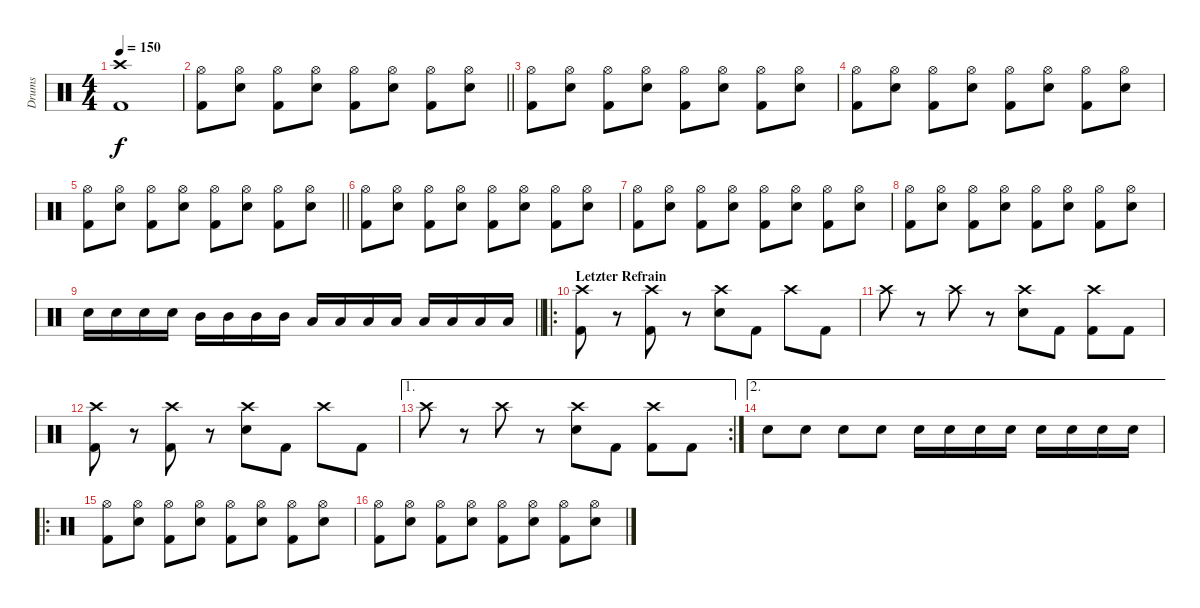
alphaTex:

\track ("Drums" "Drums") {instrument percussion}
\staff {score}
\articulation defaults
\ts (4 4)
\tempo 150
\clef neutral
\ks c
("Crash high (hit)" "Kick (hit) 2").1{dy f} |
\barLineRight lightlight
("Hi-Hat (open)" "Kick (hit) 2").8 ("Hi-Hat (open)" "Snare (hit) 2").8 ("Hi-Hat (open)" "Kick (hit) 2").8 ("Hi-Hat (open)" "Snare (hit) 2").8 ("Hi-Hat (open)" "Kick (hit) 2").8 ("Hi-Hat (open)" "Snare (hit) 2").8 ("Hi-Hat (open)" "Kick (hit) 2").8 ("Hi-Hat (open)" "Snare (hit) 2").8 |
\section ("" "")
("Hi-Hat (open)" "Kick (hit) 2").8 ("Hi-Hat (open)" "Snare (hit) 2").8 ("Hi-Hat (open)" "Kick (hit) 2").8 ("Hi-Hat (open)" "Snare (hit) 2").8 ("Hi-Hat (open)" "Kick (hit) 2").8 ("Hi-Hat (open)" "Snare (hit) 2").8 ("Hi-Hat (open)" "Kick (hit) 2").8 ("Hi-Hat (open)" "Snare (hit) 2").8 |
("Hi-Hat (open)" "Kick (hit) 2").8 ("Hi-Hat (open)" "Snare (hit) 2").8 ("Hi-Hat (open)" "Kick (hit) 2").8 ("Hi-Hat (open)" "Snare (hit) 2").8 ("Hi-Hat (open)" "Kick (hit) 2").8 ("Hi-Hat (open)" "Snare (hit) 2").8 ("Hi-Hat (open)" "Kick (hit) 2").8 ("Hi-Hat (open)" "Snare (hit) 2").8 |
\barLineRight lightlight
("Hi-Hat (open)" "Kick (hit) 2").8 ("Hi-Hat (open)" "Snare (hit) 2").8 ("Hi-Hat (open)" "Kick (hit) 2").8 ("Hi-Hat (open)" "Snare (hit) 2").8 ("Hi-Hat (open)" "Kick (hit) 2").8 ("Hi-Hat (open)" "Snare (hit) 2").8 ("Hi-Hat (open)" "Kick (hit) 2").8 ("Hi-Hat (open)" "Snare (hit) 2").8 |
("Hi-Hat (open)" "Kick (hit) 2").8 ("Hi-Hat (open)" "Snare (hit) 2").8 ("Hi-Hat (open)" "Kick (hit) 2").8 ("Hi-Hat (open)" "Snare (hit) 2").8 ("Hi-Hat (open)" "Kick (hit) 2").8 ("Hi-Hat (open)" "Snare (hit) 2").8 ("Hi-Hat (open)" "Kick (hit) 2").8 ("Hi-Hat (open)" "Snare (hit) 2").8 |
("Hi-Hat (open)" "Kick (hit) 2").8 ("Hi-Hat (open)" "Snare (hit) 2").8 ("Hi-Hat (open)" "Kick (hit) 2").8 ("Hi-Hat (open)" "Snare (hit) 2").8 ("Hi-Hat (open)" "Kick (hit) 2").8 ("Hi-Hat (open)" "Snare (hit) 2").8 ("Hi-Hat (open)" "Kick (hit) 2").8 ("Hi-Hat (open)" "Snare (hit) 2").8 |
("Hi-Hat (open)" "Kick (hit) 2").8 ("Hi-Hat (open)" "Snare (hit) 2").8 ("Hi-Hat (open)" "Kick (hit) 2").8 ("Hi-Hat (open)" "Snare (hit) 2").8 ("Hi-Hat (open)" "Kick (hit) 2").8 ("Hi-Hat (open)" "Snare (hit) 2").8 ("Hi-Hat (open)" "Kick (hit) 2").8 ("Hi-Hat (open)" "Snare (hit) 2").8 |
\barLineRight lightlight "Snare (hit) 2".16 "Snare (hit) 2".16 "Snare (hit) 2".16 "Snare (hit) 2".16 "Mid Tom (hit)".16 "Mid Tom (hit)".16 "Mid Tom (hit)".16 "Mid Tom (hit)".16 "Low Tom (hit)".16 "Low Tom (hit)".16 "Low Tom (hit)".16 "Low Tom (hit)".16 "Low Floor Tom (hit)".16 "Low Floor Tom (hit)".16 "Low Floor Tom (hit)".16 "Low Floor Tom (hit)".16
|
\ro
\section ("" "Letzter Refrain")
("Crash high (hit)" "Kick (hit) 2").8 r.8 ("Crash high (hit)" "Kick (hit) 2").8 r.8 ("Crash high (hit)" "Snare (hit) 2").8 "Kick (hit) 2".8 "Crash high (hit)".8 "Kick (hit) 2".8 |
"Crash high (hit)".8 r.8 "Crash high (hit)".8 r.8 ("Crash high (hit)" "Snare (hit) 2").8 "Kick (hit) 2".8 ("Crash high (hit)" "Kick (hit) 2").8 "Kick (hit) 2".8 |
("Crash high (hit)" "Kick (hit) 2").8 r.8 ("Crash high (hit)" "Kick (hit) 2").8 r.8 ("Crash high (hit)" "Snare (hit) 2").8 "Kick (hit) 2".8 "Crash high (hit)".8 "Kick (hit) 2".8 |
\ae 1
\rc 2 "Crash high (hit)".8
r.8 "Crash high (hit)".8 r.8 ("Crash high (hit)" "Snare (hit) 2").8 "Kick (hit) 2".8 ("Crash high (hit)" "Kick (hit) 2").8 "Kick (hit) 2".8 |
\ae 2 "Snare (hit) 2".8 "Snare (hit) 2".8 "Snare (hit) 2".8 "Snare (hit) 2".8 "Snare (hit) 2".16 "Snare (hit) 2".16 "Snare (hit) 2".16 "Snare (hit) 2".16 "Snare (hit) 2".16 "Snare (hit) 2".16 "Snare (hit) 2".16 "Snare (hit) 2".16
|
\ro
("Hi-Hat (open)" "Kick (hit) 2").8 ("Hi-Hat (open)" "Snare (hit) 2").8 ("Hi-Hat (open)" "Kick (hit) 2").8 ("Hi-Hat (open)" "Snare (hit) 2").8 ("Hi-Hat (open)" "Kick (hit) 2").8 ("Hi-Hat (open)" "Snare (hit) 2").8 ("Hi-Hat (open)" "Kick (hit) 2").8 ("Hi-Hat (open)" "Snare (hit) 2").8 |
("Hi-Hat (open)" "Kick (hit) 2").8 ("Hi-Hat (open)" "Snare (hit) 2").8 ("Hi-Hat (open)" "Kick (hit) 2").8 ("Hi-Hat (open)" "Snare (hit) 2").8 ("Hi-Hat (open)" "Kick (hit) 2").8 ("Hi-Hat (open)" "Snare (hit) 2").8 ("Hi-Hat (open)" "Kick (hit) 2").8 ("Hi-Hat (open)" "Snare (hit) 2").8
